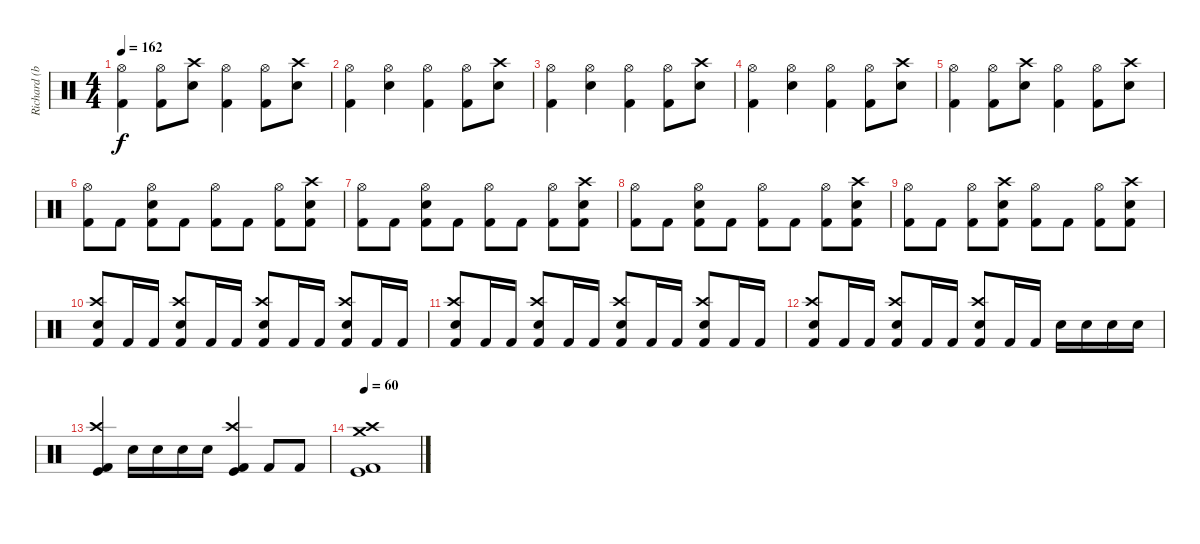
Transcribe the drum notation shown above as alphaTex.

\track ("Richard (batterie)" "Richard (b") {instrument percussion}
\staff {score}
\articulation defaults
\ts (4 4)
\tempo 162
\clef neutral
\ks c
("Hi-Hat (open)" "Kick (hit) 2").4{dy f} ("Hi-Hat (open)" "Kick (hit) 2").8 ("Crash high (hit)" "Snare (hit) 2").8 ("Hi-Hat (open)" "Kick (hit) 2").4 ("Hi-Hat (open)" "Kick (hit) 2").8 ("Crash high (hit)" "Snare (hit) 2").8 |
("Hi-Hat (open)" "Kick (hit) 2").4 ("Hi-Hat (open)" "Snare (hit) 2").4 ("Hi-Hat (open)" "Kick (hit) 2").4 ("Hi-Hat (open)" "Kick (hit) 2").8 ("Crash high (hit)" "Snare (hit) 2").8 |
("Hi-Hat (open)" "Kick (hit) 2").4 ("Hi-Hat (open)" "Snare (hit) 2").4 ("Hi-Hat (open)" "Kick (hit) 2").4 ("Hi-Hat (open)" "Kick (hit) 2").8 ("Crash high (hit)" "Snare (hit) 2").8 |
("Hi-Hat (open)" "Kick (hit) 2").4 ("Hi-Hat (open)" "Snare (hit) 2").4 ("Hi-Hat (open)" "Kick (hit) 2").4 ("Hi-Hat (open)" "Kick (hit) 2").8 ("Crash high (hit)" "Snare (hit) 2").8 |
("Hi-Hat (open)" "Kick (hit) 2").4 ("Hi-Hat (open)" "Kick (hit) 2").8 ("Crash high (hit)" "Snare (hit) 2").8 ("Hi-Hat (open)" "Kick (hit) 2").4 ("Hi-Hat (open)" "Kick (hit) 2").8 ("Crash high (hit)" "Snare (hit) 2").8 |
("Hi-Hat (open)" "Kick (hit) 2").8 "Kick (hit) 2".8 ("Hi-Hat (open)" "Snare (hit) 2" "Kick (hit) 2").8 "Kick (hit) 2".8 ("Hi-Hat (open)" "Kick (hit) 2").8 "Kick (hit) 2".8 ("Hi-Hat (open)" "Kick (hit) 2").8 ("Crash high (hit)" "Snare (hit) 2" "Kick (hit) 2").8 |
("Hi-Hat (open)" "Kick (hit) 2").8 "Kick (hit) 2".8 ("Hi-Hat (open)" "Snare (hit) 2" "Kick (hit) 2").8 "Kick (hit) 2".8 ("Hi-Hat (open)" "Kick (hit) 2").8 "Kick (hit) 2".8 ("Hi-Hat (open)" "Kick (hit) 2").8 ("Crash high (hit)" "Snare (hit) 2" "Kick (hit) 2").8 |
("Hi-Hat (open)" "Kick (hit) 2").8 "Kick (hit) 2".8 ("Hi-Hat (open)" "Snare (hit) 2" "Kick (hit) 2").8 "Kick (hit) 2".8 ("Hi-Hat (open)" "Kick (hit) 2").8 "Kick (hit) 2".8 ("Hi-Hat (open)" "Kick (hit) 2").8 ("Crash high (hit)" "Snare (hit) 2" "Kick (hit) 2").8 |
("Hi-Hat (open)" "Kick (hit) 2").8 "Kick (hit) 2".8 ("Hi-Hat (open)" "Kick (hit) 2").8 ("Crash high (hit)" "Snare (hit) 2" "Kick (hit) 2").8 ("Hi-Hat (open)" "Kick (hit) 2").8 "Kick (hit) 2".8 ("Hi-Hat (open)" "Kick (hit) 2").8 ("Crash high (hit)" "Snare (hit) 2" "Kick (hit) 2").8 |
("Crash high (hit)" "Snare (hit) 2" "Kick (hit) 2").8 "Kick (hit) 2".16 "Kick (hit) 2".16 ("Crash high (hit)" "Snare (hit) 2" "Kick (hit) 2").8 "Kick (hit) 2".16 "Kick (hit) 2".16 ("Crash high (hit)" "Snare (hit) 2" "Kick (hit) 2").8 "Kick (hit) 2".16 "Kick (hit) 2".16 ("Crash high (hit)" "Snare (hit) 2" "Kick (hit) 2").8 "Kick (hit) 2".16 "Kick (hit) 2".16 |
("Crash high (hit)" "Snare (hit) 2" "Kick (hit) 2").8 "Kick (hit) 2".16 "Kick (hit) 2".16 ("Crash high (hit)" "Snare (hit) 2" "Kick (hit) 2").8 "Kick (hit) 2".16 "Kick (hit) 2".16 ("Crash high (hit)" "Snare (hit) 2" "Kick (hit) 2").8 "Kick (hit) 2".16 "Kick (hit) 2".16 ("Crash high (hit)" "Snare (hit) 2" "Kick (hit) 2").8 "Kick (hit) 2".16 "Kick (hit) 2".16 |
("Crash high (hit)" "Snare (hit) 2" "Kick (hit) 2").8 "Kick (hit) 2".16 "Kick (hit) 2".16 ("Crash high (hit)" "Snare (hit) 2" "Kick (hit) 2").8 "Kick (hit) 2".16 "Kick (hit) 2".16 ("Crash high (hit)" "Snare (hit) 2" "Kick (hit) 2").8 "Kick (hit) 2".16 "Kick (hit) 2".16 "Snare (hit) 2".16 "Snare (hit) 2".16 "Snare (hit) 2".16 "Snare (hit) 2".16 |
("Crash high (hit)" "Kick (hit) 2" "Kick (hit)").4 "Snare (hit) 2".16 "Snare (hit) 2".16 "Snare (hit) 2".16 "Snare (hit) 2".16 ("Crash high (hit)" "Kick (hit) 2" "Kick (hit)").4 "Kick (hit) 2".8 "Kick (hit) 2".8 |
\tempo 60
("Crash medium (hit)" "Crash high (hit)" "Kick (hit) 2" "Kick (hit)").1
